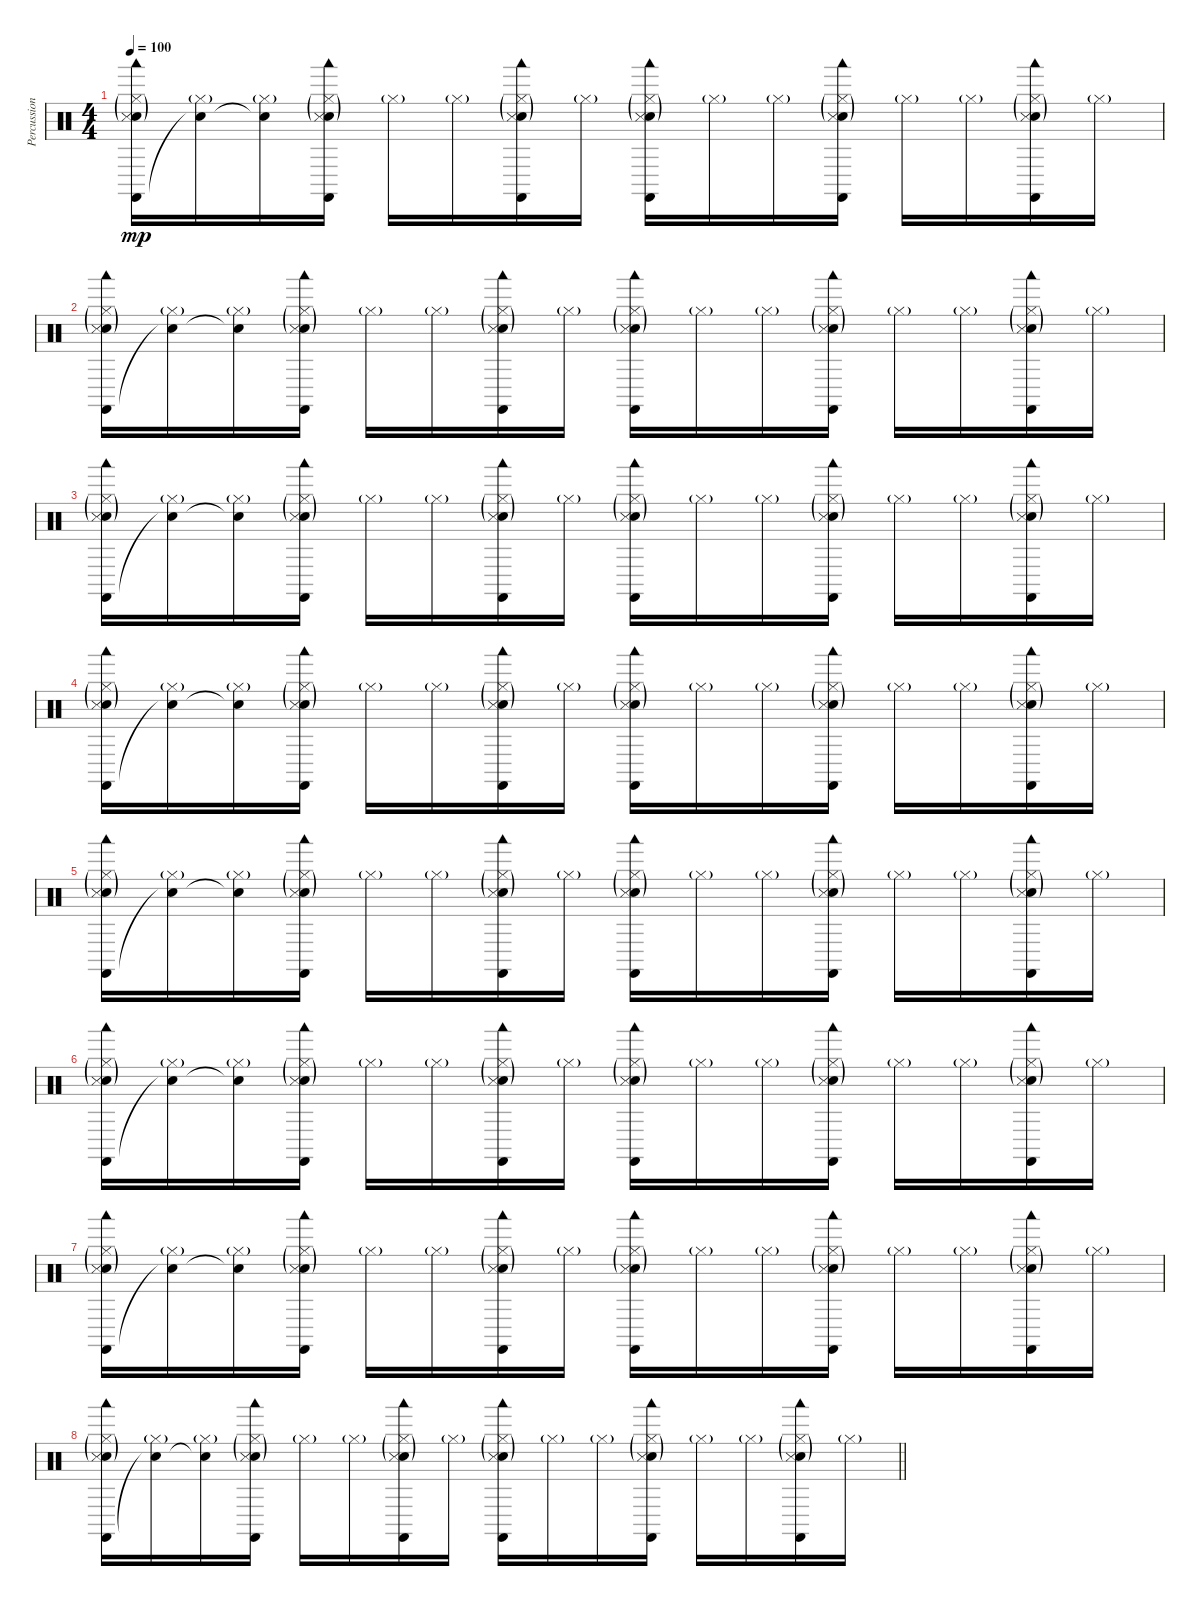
\track ("Percussion" "Percussion") {instrument percussion}
\staff {score}
\articulation defaults
\ts (4 4)
\tempo 100
\clef neutral
\ks c
("Hi-Hat (closed)"{g} "Castanets (hit)" "Woodblock low (hit)" "Electric Snare (hit)"{g} "Metronome (hit)"{g}).16{dy mp} ("Hi-Hat (closed)"{g} "Snare (hit)"{t}).16 ("Hi-Hat (closed)"{g} "Snare (hit)"{t}).16 ("Hi-Hat (closed)"{g} "Castanets (hit)" "Woodblock low (hit)" "Electric Snare (hit)"{g} "Metronome (hit)"{g}).16 "Hi-Hat (closed)"{g}.16 "Hi-Hat (closed)"{g}.16 ("Hi-Hat (closed)"{g} "Castanets (hit)" "Woodblock low (hit)" "Electric Snare (hit)"{g} "Metronome (hit)"{g}).16 "Hi-Hat (closed)"{g}.16 ("Hi-Hat (closed)"{g} "Castanets (hit)" "Woodblock low (hit)" "Electric Snare (hit)"{g} "Metronome (hit)"{g}).16 "Hi-Hat (closed)"{g}.16 "Hi-Hat (closed)"{g}.16 ("Hi-Hat (closed)"{g} "Castanets (hit)" "Woodblock low (hit)" "Electric Snare (hit)"{g} "Metronome (hit)"{g}).16 "Hi-Hat (closed)"{g}.16 "Hi-Hat (closed)"{g}.16 ("Hi-Hat (closed)"{g} "Castanets (hit)" "Woodblock low (hit)" "Electric Snare (hit)"{g} "Metronome (hit)"{g}).16 "Hi-Hat (closed)"{g}.16 |
("Hi-Hat (closed)"{g} "Castanets (hit)" "Woodblock low (hit)" "Electric Snare (hit)"{g} "Metronome (hit)"{g}).16 ("Hi-Hat (closed)"{g} "Snare (hit)"{t}).16 ("Hi-Hat (closed)"{g} "Snare (hit)"{t}).16 ("Hi-Hat (closed)"{g} "Castanets (hit)" "Woodblock low (hit)" "Electric Snare (hit)"{g} "Metronome (hit)"{g}).16 "Hi-Hat (closed)"{g}.16 "Hi-Hat (closed)"{g}.16 ("Hi-Hat (closed)"{g} "Castanets (hit)" "Woodblock low (hit)" "Electric Snare (hit)"{g} "Metronome (hit)"{g}).16 "Hi-Hat (closed)"{g}.16 ("Hi-Hat (closed)"{g} "Castanets (hit)" "Woodblock low (hit)" "Electric Snare (hit)"{g} "Metronome (hit)"{g}).16 "Hi-Hat (closed)"{g}.16 "Hi-Hat (closed)"{g}.16 ("Hi-Hat (closed)"{g} "Castanets (hit)" "Woodblock low (hit)" "Electric Snare (hit)"{g} "Metronome (hit)"{g}).16 "Hi-Hat (closed)"{g}.16 "Hi-Hat (closed)"{g}.16 ("Hi-Hat (closed)"{g} "Castanets (hit)" "Woodblock low (hit)" "Electric Snare (hit)"{g} "Metronome (hit)"{g}).16 "Hi-Hat (closed)"{g}.16 |
("Hi-Hat (closed)"{g} "Castanets (hit)" "Woodblock low (hit)" "Electric Snare (hit)"{g} "Metronome (hit)"{g}).16 ("Hi-Hat (closed)"{g} "Snare (hit)"{t}).16 ("Hi-Hat (closed)"{g} "Snare (hit)"{t}).16 ("Hi-Hat (closed)"{g} "Castanets (hit)" "Woodblock low (hit)" "Electric Snare (hit)"{g} "Metronome (hit)"{g}).16 "Hi-Hat (closed)"{g}.16 "Hi-Hat (closed)"{g}.16 ("Hi-Hat (closed)"{g} "Castanets (hit)" "Woodblock low (hit)" "Electric Snare (hit)"{g} "Metronome (hit)"{g}).16 "Hi-Hat (closed)"{g}.16 ("Hi-Hat (closed)"{g} "Castanets (hit)" "Woodblock low (hit)" "Electric Snare (hit)"{g} "Metronome (hit)"{g}).16 "Hi-Hat (closed)"{g}.16 "Hi-Hat (closed)"{g}.16 ("Hi-Hat (closed)"{g} "Castanets (hit)" "Woodblock low (hit)" "Electric Snare (hit)"{g} "Metronome (hit)"{g}).16 "Hi-Hat (closed)"{g}.16 "Hi-Hat (closed)"{g}.16 ("Hi-Hat (closed)"{g} "Castanets (hit)" "Woodblock low (hit)" "Electric Snare (hit)"{g} "Metronome (hit)"{g}).16 "Hi-Hat (closed)"{g}.16 |
("Hi-Hat (closed)"{g} "Castanets (hit)" "Woodblock low (hit)" "Electric Snare (hit)"{g} "Metronome (hit)"{g}).16 ("Hi-Hat (closed)"{g} "Snare (hit)"{t}).16 ("Hi-Hat (closed)"{g} "Snare (hit)"{t}).16 ("Hi-Hat (closed)"{g} "Castanets (hit)" "Woodblock low (hit)" "Electric Snare (hit)"{g} "Metronome (hit)"{g}).16 "Hi-Hat (closed)"{g}.16 "Hi-Hat (closed)"{g}.16 ("Hi-Hat (closed)"{g} "Castanets (hit)" "Woodblock low (hit)" "Electric Snare (hit)"{g} "Metronome (hit)"{g}).16 "Hi-Hat (closed)"{g}.16 ("Hi-Hat (closed)"{g} "Castanets (hit)" "Woodblock low (hit)" "Electric Snare (hit)"{g} "Metronome (hit)"{g}).16 "Hi-Hat (closed)"{g}.16 "Hi-Hat (closed)"{g}.16 ("Hi-Hat (closed)"{g} "Castanets (hit)" "Woodblock low (hit)" "Electric Snare (hit)"{g} "Metronome (hit)"{g}).16 "Hi-Hat (closed)"{g}.16 "Hi-Hat (closed)"{g}.16 ("Hi-Hat (closed)"{g} "Castanets (hit)" "Woodblock low (hit)" "Electric Snare (hit)"{g} "Metronome (hit)"{g}).16 "Hi-Hat (closed)"{g}.16 |
("Hi-Hat (closed)"{g} "Castanets (hit)" "Woodblock low (hit)" "Electric Snare (hit)"{g} "Metronome (hit)"{g}).16 ("Hi-Hat (closed)"{g} "Snare (hit)"{t}).16 ("Hi-Hat (closed)"{g} "Snare (hit)"{t}).16 ("Hi-Hat (closed)"{g} "Castanets (hit)" "Woodblock low (hit)" "Electric Snare (hit)"{g} "Metronome (hit)"{g}).16 "Hi-Hat (closed)"{g}.16 "Hi-Hat (closed)"{g}.16 ("Hi-Hat (closed)"{g} "Castanets (hit)" "Woodblock low (hit)" "Electric Snare (hit)"{g} "Metronome (hit)"{g}).16 "Hi-Hat (closed)"{g}.16 ("Hi-Hat (closed)"{g} "Castanets (hit)" "Woodblock low (hit)" "Electric Snare (hit)"{g} "Metronome (hit)"{g}).16 "Hi-Hat (closed)"{g}.16 "Hi-Hat (closed)"{g}.16 ("Hi-Hat (closed)"{g} "Castanets (hit)" "Woodblock low (hit)" "Electric Snare (hit)"{g} "Metronome (hit)"{g}).16 "Hi-Hat (closed)"{g}.16 "Hi-Hat (closed)"{g}.16 ("Hi-Hat (closed)"{g} "Castanets (hit)" "Woodblock low (hit)" "Electric Snare (hit)"{g} "Metronome (hit)"{g}).16 "Hi-Hat (closed)"{g}.16 |
("Hi-Hat (closed)"{g} "Castanets (hit)" "Woodblock low (hit)" "Electric Snare (hit)"{g} "Metronome (hit)"{g}).16 ("Hi-Hat (closed)"{g} "Snare (hit)"{t}).16 ("Hi-Hat (closed)"{g} "Snare (hit)"{t}).16 ("Hi-Hat (closed)"{g} "Castanets (hit)" "Woodblock low (hit)" "Electric Snare (hit)"{g} "Metronome (hit)"{g}).16 "Hi-Hat (closed)"{g}.16 "Hi-Hat (closed)"{g}.16 ("Hi-Hat (closed)"{g} "Castanets (hit)" "Woodblock low (hit)" "Electric Snare (hit)"{g} "Metronome (hit)"{g}).16 "Hi-Hat (closed)"{g}.16 ("Hi-Hat (closed)"{g} "Castanets (hit)" "Woodblock low (hit)" "Electric Snare (hit)"{g} "Metronome (hit)"{g}).16 "Hi-Hat (closed)"{g}.16 "Hi-Hat (closed)"{g}.16 ("Hi-Hat (closed)"{g} "Castanets (hit)" "Woodblock low (hit)" "Electric Snare (hit)"{g} "Metronome (hit)"{g}).16 "Hi-Hat (closed)"{g}.16 "Hi-Hat (closed)"{g}.16 ("Hi-Hat (closed)"{g} "Castanets (hit)" "Woodblock low (hit)" "Electric Snare (hit)"{g} "Metronome (hit)"{g}).16 "Hi-Hat (closed)"{g}.16 |
("Hi-Hat (closed)"{g} "Castanets (hit)" "Woodblock low (hit)" "Electric Snare (hit)"{g} "Metronome (hit)"{g}).16 ("Hi-Hat (closed)"{g} "Snare (hit)"{t}).16 ("Hi-Hat (closed)"{g} "Snare (hit)"{t}).16 ("Hi-Hat (closed)"{g} "Castanets (hit)" "Woodblock low (hit)" "Electric Snare (hit)"{g} "Metronome (hit)"{g}).16 "Hi-Hat (closed)"{g}.16 "Hi-Hat (closed)"{g}.16 ("Hi-Hat (closed)"{g} "Castanets (hit)" "Woodblock low (hit)" "Electric Snare (hit)"{g} "Metronome (hit)"{g}).16 "Hi-Hat (closed)"{g}.16 ("Hi-Hat (closed)"{g} "Castanets (hit)" "Woodblock low (hit)" "Electric Snare (hit)"{g} "Metronome (hit)"{g}).16 "Hi-Hat (closed)"{g}.16 "Hi-Hat (closed)"{g}.16 ("Hi-Hat (closed)"{g} "Castanets (hit)" "Woodblock low (hit)" "Electric Snare (hit)"{g} "Metronome (hit)"{g}).16 "Hi-Hat (closed)"{g}.16 "Hi-Hat (closed)"{g}.16 ("Hi-Hat (closed)"{g} "Castanets (hit)" "Woodblock low (hit)" "Electric Snare (hit)"{g} "Metronome (hit)"{g}).16 "Hi-Hat (closed)"{g}.16 |
\barLineRight lightlight
("Hi-Hat (closed)"{g} "Castanets (hit)" "Woodblock low (hit)" "Electric Snare (hit)"{g} "Metronome (hit)"{g}).16 ("Hi-Hat (closed)"{g} "Snare (hit)"{t}).16 ("Hi-Hat (closed)"{g} "Snare (hit)"{t}).16 ("Hi-Hat (closed)"{g} "Castanets (hit)" "Woodblock low (hit)" "Electric Snare (hit)"{g} "Metronome (hit)"{g}).16 "Hi-Hat (closed)"{g}.16 "Hi-Hat (closed)"{g}.16 ("Hi-Hat (closed)"{g} "Castanets (hit)" "Woodblock low (hit)" "Electric Snare (hit)"{g} "Metronome (hit)"{g}).16 "Hi-Hat (closed)"{g}.16 ("Hi-Hat (closed)"{g} "Castanets (hit)" "Woodblock low (hit)" "Electric Snare (hit)"{g} "Metronome (hit)"{g}).16 "Hi-Hat (closed)"{g}.16 "Hi-Hat (closed)"{g}.16 ("Hi-Hat (closed)"{g} "Castanets (hit)" "Woodblock low (hit)" "Electric Snare (hit)"{g} "Metronome (hit)"{g}).16 "Hi-Hat (closed)"{g}.16 "Hi-Hat (closed)"{g}.16 ("Hi-Hat (closed)"{g} "Castanets (hit)" "Woodblock low (hit)" "Electric Snare (hit)"{g} "Metronome (hit)"{g}).16 "Hi-Hat (closed)"{g}.16
